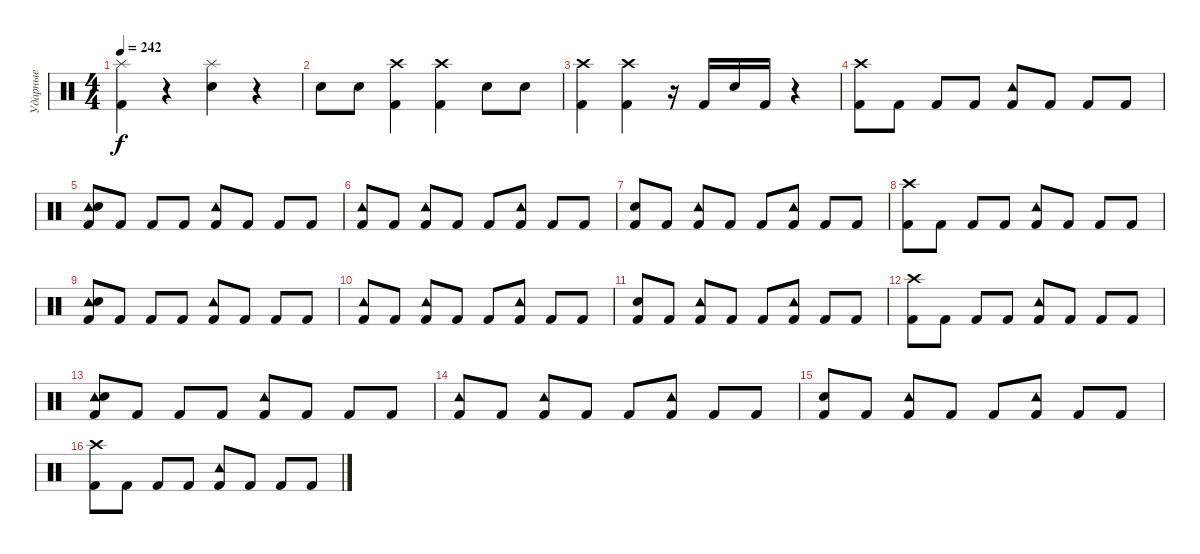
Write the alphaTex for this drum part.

\track ("Ударные" "Ударные") {instrument percussion}
\staff {score}
\articulation defaults
\ts (4 4)
\tempo 242
\clef neutral
\ks c
("Splash (hit)" "Kick (hit) 2").4{dy f} r.4 ("Splash (hit)" "Electric Snare (hit)").4 r.4 |
"Electric Snare (hit)".8 "Electric Snare (hit)".8 ("Crash high (hit)" "Kick (hit) 2").4 ("Crash high (hit)" "Kick (hit) 2").4 "Electric Snare (hit)".8 "Electric Snare (hit)".8 |
("Crash high (hit)" "Kick (hit) 2").4 ("Crash high (hit)" "Kick (hit) 2").4 r.16 "Kick (hit) 2".16 "Electric Snare (hit)".16 "Kick (hit) 2".16 r.4 |
("Crash high (hit)" "Kick (hit) 2").8 "Kick (hit) 2".8 "Kick (hit) 2".8 "Kick (hit) 2".8 ("Tambourine (hit)" "Kick (hit) 2").8 "Kick (hit) 2".8 "Kick (hit) 2".8 "Kick (hit) 2".8 |
("Tambourine (hit)" "Electric Snare (hit)" "Kick (hit) 2").8 "Kick (hit) 2".8 "Kick (hit) 2".8 "Kick (hit) 2".8 ("Tambourine (hit)" "Kick (hit) 2").8 "Kick (hit) 2".8 "Kick (hit) 2".8 "Kick (hit) 2".8 |
("Tambourine (hit)" "Kick (hit) 2").8 "Kick (hit) 2".8 ("Tambourine (hit)" "Kick (hit) 2").8 "Kick (hit) 2".8 "Kick (hit) 2".8 ("Tambourine (hit)" "Kick (hit) 2").8 "Kick (hit) 2".8 "Kick (hit) 2".8 |
("Electric Snare (hit)" "Kick (hit) 2").8 "Kick (hit) 2".8 ("Tambourine (hit)" "Kick (hit) 2").8 "Kick (hit) 2".8 "Kick (hit) 2".8 ("Tambourine (hit)" "Kick (hit) 2").8 "Kick (hit) 2".8 "Kick (hit) 2".8 |
("Crash high (hit)" "Kick (hit) 2").8 "Kick (hit) 2".8 "Kick (hit) 2".8 "Kick (hit) 2".8 ("Tambourine (hit)" "Kick (hit) 2").8 "Kick (hit) 2".8 "Kick (hit) 2".8 "Kick (hit) 2".8 |
("Tambourine (hit)" "Electric Snare (hit)" "Kick (hit) 2").8 "Kick (hit) 2".8 "Kick (hit) 2".8 "Kick (hit) 2".8 ("Tambourine (hit)" "Kick (hit) 2").8 "Kick (hit) 2".8 "Kick (hit) 2".8 "Kick (hit) 2".8 |
("Tambourine (hit)" "Kick (hit) 2").8 "Kick (hit) 2".8 ("Tambourine (hit)" "Kick (hit) 2").8 "Kick (hit) 2".8 "Kick (hit) 2".8 ("Tambourine (hit)" "Kick (hit) 2").8 "Kick (hit) 2".8 "Kick (hit) 2".8 |
("Electric Snare (hit)" "Kick (hit) 2").8 "Kick (hit) 2".8 ("Tambourine (hit)" "Kick (hit) 2").8 "Kick (hit) 2".8 "Kick (hit) 2".8 ("Tambourine (hit)" "Kick (hit) 2").8 "Kick (hit) 2".8 "Kick (hit) 2".8 |
("Crash high (hit)" "Kick (hit) 2").8 "Kick (hit) 2".8 "Kick (hit) 2".8 "Kick (hit) 2".8 ("Tambourine (hit)" "Kick (hit) 2").8 "Kick (hit) 2".8 "Kick (hit) 2".8 "Kick (hit) 2".8 |
("Tambourine (hit)" "Electric Snare (hit)" "Kick (hit) 2").8 "Kick (hit) 2".8 "Kick (hit) 2".8 "Kick (hit) 2".8 ("Tambourine (hit)" "Kick (hit) 2").8 "Kick (hit) 2".8 "Kick (hit) 2".8 "Kick (hit) 2".8 |
("Tambourine (hit)" "Kick (hit) 2").8 "Kick (hit) 2".8 ("Tambourine (hit)" "Kick (hit) 2").8 "Kick (hit) 2".8 "Kick (hit) 2".8 ("Tambourine (hit)" "Kick (hit) 2").8 "Kick (hit) 2".8 "Kick (hit) 2".8 |
("Electric Snare (hit)" "Kick (hit) 2").8 "Kick (hit) 2".8 ("Tambourine (hit)" "Kick (hit) 2").8 "Kick (hit) 2".8 "Kick (hit) 2".8 ("Tambourine (hit)" "Kick (hit) 2").8 "Kick (hit) 2".8 "Kick (hit) 2".8 |
("Crash high (hit)" "Kick (hit) 2").8 "Kick (hit) 2".8 "Kick (hit) 2".8 "Kick (hit) 2".8 ("Tambourine (hit)" "Kick (hit) 2").8 "Kick (hit) 2".8 "Kick (hit) 2".8 "Kick (hit) 2".8
